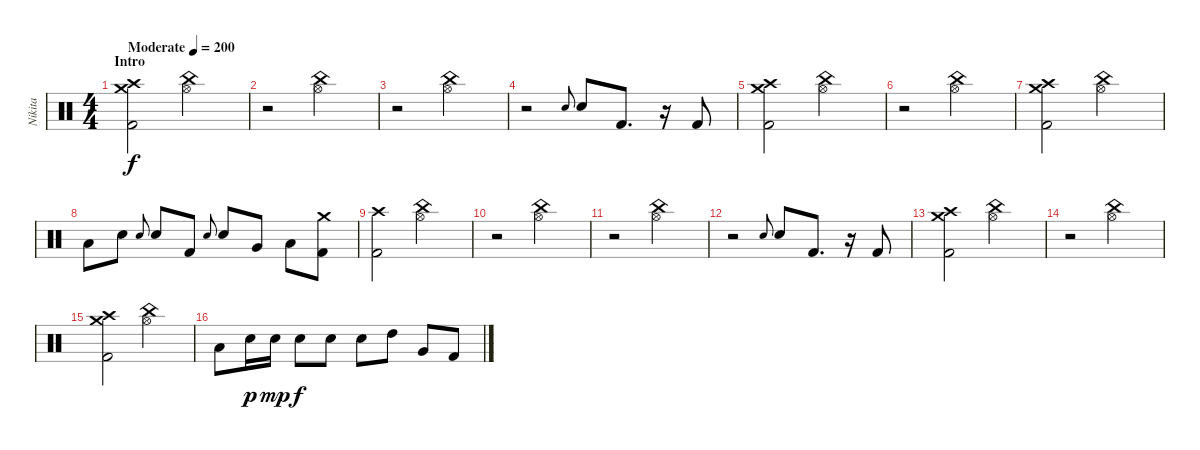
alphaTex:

\track ("Nikita" "Nikita") {instrument percussion}
\staff {score}
\articulation defaults
\ts (4 4)
\section ("" "Intro")
\tempo (200 "Moderate")
\clef neutral
\ks c
("Crash high (hit)" "Crash medium (hit)" "Kick (hit) 2").2{dy f} ("China (hit)" "Hi-Hat (open)").2 |
r.2 ("China (hit)" "Hi-Hat (open)").2 |
r.2 ("China (hit)" "Hi-Hat (open)").2 |
r.2 "Electric Snare (hit)"{x}.8{gr onbeat} "Electric Snare (hit)".8 "Kick (hit) 2".8{d} r.16 "Kick (hit) 2".8 |
("Crash high (hit)" "Crash medium (hit)" "Kick (hit) 2").2 ("Hi-Hat (open)" "China (hit)").2 |
r.2 ("Hi-Hat (open)" "China (hit)").2 |
("Crash medium (hit)" "Crash high (hit)" "Kick (hit) 2").2 ("Hi-Hat (open)" "China (hit)").2 |
"Low Tom (hit)".8 "Electric Snare (hit)".8 "Electric Snare (hit)"{x}.8{gr onbeat} "Electric Snare (hit)".8 "Kick (hit) 2".8 "Electric Snare (hit)"{x}.8{gr onbeat} "Electric Snare (hit)".8 "Very Low Tom (hit)".8 "Low Tom (hit)".8 ("Crash medium (hit)" "Kick (hit) 2").8 |
("Crash high (hit)" "Kick (hit) 2").2 ("Hi-Hat (open)" "China (hit)").2 |
r.2 ("Hi-Hat (open)" "China (hit)").2 |
r.2 ("Hi-Hat (open)" "China (hit)").2 |
r.2 "Electric Snare (hit)"{x}.8{gr onbeat} "Electric Snare (hit)".8 "Kick (hit) 2".8{d} r.16 "Kick (hit) 2".8 |
("Crash high (hit)" "Crash medium (hit)" "Kick (hit) 2").2 ("China (hit)" "Hi-Hat (open)").2 |
r.2 ("Hi-Hat (open)" "China (hit)").2 |
("Crash medium (hit)" "Crash high (hit)" "Kick (hit) 2").2 ("Hi-Hat (open)" "China (hit)").2 |
"Low Tom (hit)".8 "Electric Snare (hit)".16{dy p} "Electric Snare (hit)".16{dy mp} "Electric Snare (hit)".8{dy f} "Electric Snare (hit)".8 "Electric Snare (hit)".8 "High Tom (hit)".8 "Very Low Tom (hit)".8 "Kick (hit) 2".8
